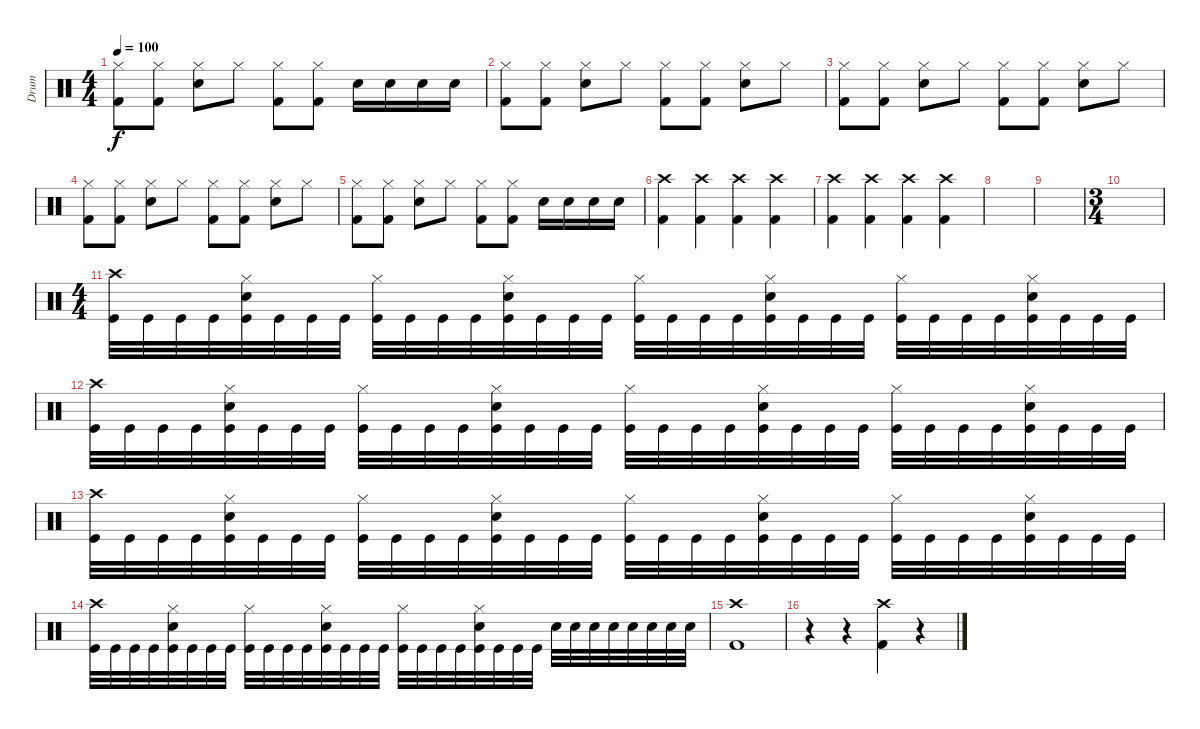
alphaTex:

\track ("Drum" "Drum") {instrument percussion}
\staff {score}
\articulation defaults
\ts (4 4)
\tempo 100
\clef neutral
\ks c
("Hi-Hat (closed)" "Kick (hit) 2").8{dy f} ("Hi-Hat (closed)" "Kick (hit) 2").8 ("Hi-Hat (closed)" "Snare (hit) 2").8 "Hi-Hat (closed)".8 ("Hi-Hat (closed)" "Kick (hit) 2").8 ("Hi-Hat (closed)" "Kick (hit) 2").8 "Snare (hit) 2".16 "Snare (hit) 2".16 "Snare (hit) 2".16 "Snare (hit) 2".16 |
("Hi-Hat (closed)" "Kick (hit) 2").8 ("Hi-Hat (closed)" "Kick (hit) 2").8 ("Hi-Hat (closed)" "Snare (hit) 2").8 "Hi-Hat (closed)".8 ("Hi-Hat (closed)" "Kick (hit) 2").8 ("Hi-Hat (closed)" "Kick (hit) 2").8 ("Snare (hit) 2" "Hi-Hat (closed)").8 "Hi-Hat (closed)".8 |
("Hi-Hat (closed)" "Kick (hit) 2").8 ("Hi-Hat (closed)" "Kick (hit) 2").8 ("Hi-Hat (closed)" "Snare (hit) 2").8 "Hi-Hat (closed)".8 ("Hi-Hat (closed)" "Kick (hit) 2").8 ("Hi-Hat (closed)" "Kick (hit) 2").8 ("Snare (hit) 2" "Hi-Hat (closed)").8 "Hi-Hat (closed)".8 |
("Hi-Hat (closed)" "Kick (hit) 2").8 ("Hi-Hat (closed)" "Kick (hit) 2").8 ("Hi-Hat (closed)" "Snare (hit) 2").8 "Hi-Hat (closed)".8 ("Hi-Hat (closed)" "Kick (hit) 2").8 ("Hi-Hat (closed)" "Kick (hit) 2").8 ("Snare (hit) 2" "Hi-Hat (closed)").8 "Hi-Hat (closed)".8 |
("Hi-Hat (closed)" "Kick (hit) 2").8 ("Hi-Hat (closed)" "Kick (hit) 2").8 ("Hi-Hat (closed)" "Snare (hit) 2").8 "Hi-Hat (closed)".8 ("Hi-Hat (closed)" "Kick (hit) 2").8 ("Hi-Hat (closed)" "Kick (hit) 2").8 "Snare (hit) 2".16 "Snare (hit) 2".16 "Snare (hit) 2".16 "Snare (hit) 2".16 |
("Crash high (hit)" "Kick (hit) 2").4 ("Crash high (hit)" "Kick (hit) 2").4 ("Crash high (hit)" "Kick (hit) 2").4 ("Crash high (hit)" "Kick (hit) 2").4 |
("Crash high (hit)" "Kick (hit) 2").4 ("Crash high (hit)" "Kick (hit) 2").4 ("Crash high (hit)" "Kick (hit) 2").4 ("Crash high (hit)" "Kick (hit) 2").4 |
|
|
\ts (3 4)
|
\ts (4 4)
("Kick (hit)" "Crash high (hit)").32 "Kick (hit)".32 "Kick (hit)".32 "Kick (hit)".32 ("Kick (hit)" "Snare (hit) 2" "Hi-Hat (closed)").32 "Kick (hit)".32 "Kick (hit)".32 "Kick (hit)".32 ("Kick (hit)" "Hi-Hat (closed)").32 "Kick (hit)".32 "Kick (hit)".32 "Kick (hit)".32 ("Kick (hit)" "Hi-Hat (closed)" "Snare (hit) 2").32 "Kick (hit)".32 "Kick (hit)".32 "Kick (hit)".32 ("Kick (hit)" "Hi-Hat (closed)").32 "Kick (hit)".32 "Kick (hit)".32 "Kick (hit)".32 ("Snare (hit) 2" "Kick (hit)" "Hi-Hat (closed)").32 "Kick (hit)".32 "Kick (hit)".32 "Kick (hit)".32 ("Kick (hit)" "Hi-Hat (closed)").32 "Kick (hit)".32 "Kick (hit)".32 "Kick (hit)".32 ("Kick (hit)" "Snare (hit) 2" "Hi-Hat (closed)").32 "Kick (hit)".32 "Kick (hit)".32 "Kick (hit)".32 |
("Kick (hit)" "Crash high (hit)").32 "Kick (hit)".32 "Kick (hit)".32 "Kick (hit)".32 ("Kick (hit)" "Snare (hit) 2" "Hi-Hat (closed)").32 "Kick (hit)".32 "Kick (hit)".32 "Kick (hit)".32 ("Kick (hit)" "Hi-Hat (closed)").32 "Kick (hit)".32 "Kick (hit)".32 "Kick (hit)".32 ("Kick (hit)" "Hi-Hat (closed)" "Snare (hit) 2").32 "Kick (hit)".32 "Kick (hit)".32 "Kick (hit)".32 ("Kick (hit)" "Hi-Hat (closed)").32 "Kick (hit)".32 "Kick (hit)".32 "Kick (hit)".32 ("Snare (hit) 2" "Kick (hit)" "Hi-Hat (closed)").32 "Kick (hit)".32 "Kick (hit)".32 "Kick (hit)".32 ("Kick (hit)" "Hi-Hat (closed)").32 "Kick (hit)".32 "Kick (hit)".32 "Kick (hit)".32 ("Kick (hit)" "Snare (hit) 2" "Hi-Hat (closed)").32 "Kick (hit)".32 "Kick (hit)".32 "Kick (hit)".32 |
("Kick (hit)" "Crash high (hit)").32 "Kick (hit)".32 "Kick (hit)".32 "Kick (hit)".32 ("Kick (hit)" "Snare (hit) 2" "Hi-Hat (closed)").32 "Kick (hit)".32 "Kick (hit)".32 "Kick (hit)".32 ("Kick (hit)" "Hi-Hat (closed)").32 "Kick (hit)".32 "Kick (hit)".32 "Kick (hit)".32 ("Kick (hit)" "Hi-Hat (closed)" "Snare (hit) 2").32 "Kick (hit)".32 "Kick (hit)".32 "Kick (hit)".32 ("Kick (hit)" "Hi-Hat (closed)").32 "Kick (hit)".32 "Kick (hit)".32 "Kick (hit)".32 ("Snare (hit) 2" "Kick (hit)" "Hi-Hat (closed)").32 "Kick (hit)".32 "Kick (hit)".32 "Kick (hit)".32 ("Kick (hit)" "Hi-Hat (closed)").32 "Kick (hit)".32 "Kick (hit)".32 "Kick (hit)".32 ("Kick (hit)" "Snare (hit) 2" "Hi-Hat (closed)").32 "Kick (hit)".32 "Kick (hit)".32 "Kick (hit)".32 |
("Kick (hit)" "Crash high (hit)").32 "Kick (hit)".32 "Kick (hit)".32 "Kick (hit)".32 ("Kick (hit)" "Snare (hit) 2" "Hi-Hat (closed)").32 "Kick (hit)".32 "Kick (hit)".32 "Kick (hit)".32 ("Kick (hit)" "Hi-Hat (closed)").32 "Kick (hit)".32 "Kick (hit)".32 "Kick (hit)".32 ("Kick (hit)" "Hi-Hat (closed)" "Snare (hit) 2").32 "Kick (hit)".32 "Kick (hit)".32 "Kick (hit)".32 ("Kick (hit)" "Hi-Hat (closed)").32 "Kick (hit)".32 "Kick (hit)".32 "Kick (hit)".32 ("Snare (hit) 2" "Kick (hit)" "Hi-Hat (closed)").32 "Kick (hit)".32 "Kick (hit)".32 "Kick (hit)".32 "Snare (hit) 2".32 "Snare (hit) 2".32 "Snare (hit) 2".32 "Snare (hit) 2".32 "Snare (hit) 2".32 "Snare (hit) 2".32 "Snare (hit) 2".32 "Snare (hit) 2".32 |
("Kick (hit) 2" "Crash high (hit)").1 |
r.4 r.4 ("Crash high (hit)" "Kick (hit) 2").4 r.4
